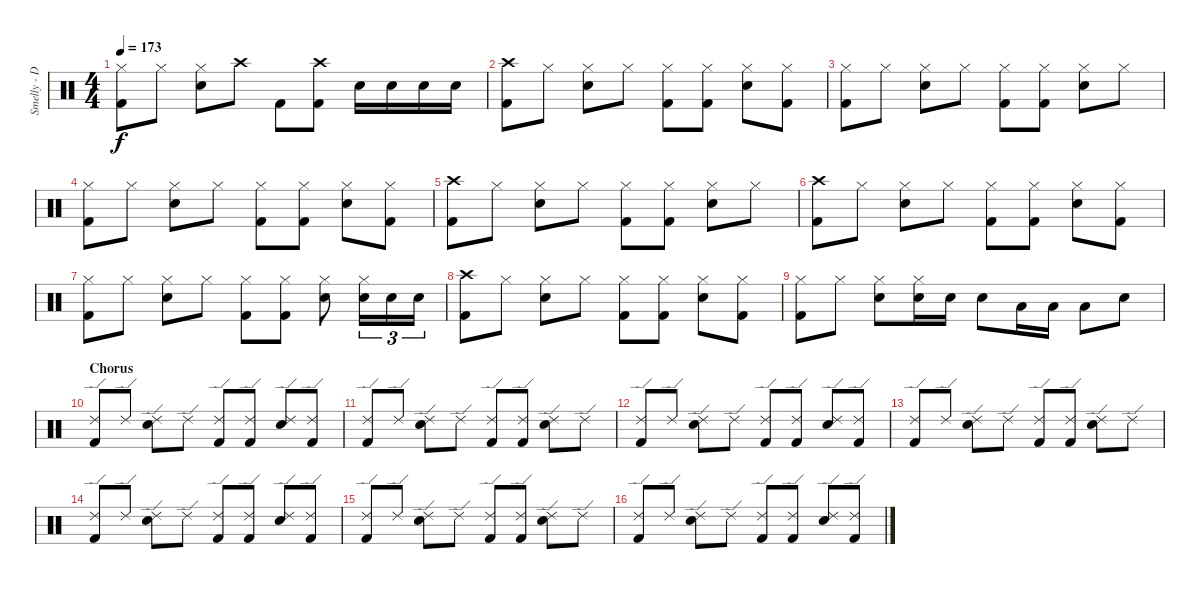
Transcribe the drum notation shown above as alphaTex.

\track ("Smelly - Drums" "Smelly - D") {instrument percussion}
\staff {score}
\articulation defaults
\ts (4 4)
\tempo 173
\clef neutral
\ks c
("Hi-Hat (closed)" "Kick (hit) 2").8{dy f} "Hi-Hat (closed)".8 ("Hi-Hat (closed)" "Snare (hit) 2").8 "Crash high (hit)".8 "Kick (hit) 2".8 ("Crash high (hit)" "Kick (hit) 2").8 "Snare (hit) 2".16 "Snare (hit) 2".16 "Snare (hit) 2".16 "Snare (hit) 2".16 |
("Crash high (hit)" "Kick (hit) 2").8 "Hi-Hat (closed)".8 ("Hi-Hat (closed)" "Snare (hit) 2").8 "Hi-Hat (closed)".8 ("Hi-Hat (closed)" "Kick (hit) 2").8 ("Hi-Hat (closed)" "Kick (hit) 2").8 ("Hi-Hat (closed)" "Snare (hit) 2").8 ("Hi-Hat (closed)" "Kick (hit) 2").8 |
("Hi-Hat (closed)" "Kick (hit) 2").8 "Hi-Hat (closed)".8 ("Hi-Hat (closed)" "Snare (hit) 2").8 "Hi-Hat (closed)".8 ("Hi-Hat (closed)" "Kick (hit) 2").8 ("Hi-Hat (closed)" "Kick (hit) 2").8 ("Hi-Hat (closed)" "Snare (hit) 2").8 "Hi-Hat (closed)".8 |
("Hi-Hat (closed)" "Kick (hit) 2").8 "Hi-Hat (closed)".8 ("Hi-Hat (closed)" "Snare (hit) 2").8 "Hi-Hat (closed)".8 ("Hi-Hat (closed)" "Kick (hit) 2").8 ("Hi-Hat (closed)" "Kick (hit) 2").8 ("Hi-Hat (closed)" "Snare (hit) 2").8 ("Hi-Hat (closed)" "Kick (hit) 2").8 |
("Crash high (hit)" "Kick (hit) 2").8 "Hi-Hat (closed)".8 ("Hi-Hat (closed)" "Snare (hit) 2").8 "Hi-Hat (closed)".8 ("Hi-Hat (closed)" "Kick (hit) 2").8 ("Hi-Hat (closed)" "Kick (hit) 2").8 ("Hi-Hat (closed)" "Snare (hit) 2").8 "Hi-Hat (closed)".8 |
("Crash high (hit)" "Kick (hit) 2").8 "Hi-Hat (closed)".8 ("Hi-Hat (closed)" "Snare (hit) 2").8 "Hi-Hat (closed)".8 ("Hi-Hat (closed)" "Kick (hit) 2").8 ("Hi-Hat (closed)" "Kick (hit) 2").8 ("Hi-Hat (closed)" "Snare (hit) 2").8 ("Hi-Hat (closed)" "Kick (hit) 2").8 |
("Hi-Hat (closed)" "Kick (hit) 2").8 "Hi-Hat (closed)".8 ("Hi-Hat (closed)" "Snare (hit) 2").8 "Hi-Hat (closed)".8 ("Hi-Hat (closed)" "Kick (hit) 2").8 ("Hi-Hat (closed)" "Kick (hit) 2").8 ("Hi-Hat (closed)" "Snare (hit) 2").8 ("Hi-Hat (closed)" "Snare (hit) 2").16{tu (3 2)} "Snare (hit) 2".16{tu (3 2)} "Snare (hit) 2".16{tu (3 2)} |
("Crash high (hit)" "Kick (hit) 2").8 "Hi-Hat (closed)".8 ("Hi-Hat (closed)" "Snare (hit) 2").8 "Hi-Hat (closed)".8 ("Hi-Hat (closed)" "Kick (hit) 2").8 ("Hi-Hat (closed)" "Kick (hit) 2").8 ("Hi-Hat (closed)" "Snare (hit) 2").8 ("Hi-Hat (closed)" "Kick (hit) 2").8 |
("Hi-Hat (closed)" "Kick (hit) 2").8 "Hi-Hat (closed)".8 ("Hi-Hat (closed)" "Snare (hit) 2").8 ("Hi-Hat (closed)" "Snare (hit) 2").16 "Snare (hit) 2".16 "Snare (hit) 2".8 "Low Tom (hit)".16 "Low Tom (hit)".16 "Low Tom (hit)".8 "Snare (hit) 2".8 |
\section ("" "Chorus")
("Ride (edge) 2" "Kick (hit) 2").8 "Ride (edge) 2".8 ("Ride (edge) 2" "Snare (hit) 2").8 "Ride (edge) 2".8 ("Ride (edge) 2" "Kick (hit) 2").8 ("Ride (edge) 2" "Kick (hit) 2").8 ("Ride (edge) 2" "Snare (hit) 2").8 ("Ride (edge) 2" "Kick (hit) 2").8 |
("Ride (edge) 2" "Kick (hit) 2").8 "Ride (edge) 2".8 ("Ride (edge) 2" "Snare (hit) 2").8 "Ride (edge) 2".8 ("Ride (edge) 2" "Kick (hit) 2").8 ("Ride (edge) 2" "Kick (hit) 2").8 ("Ride (edge) 2" "Snare (hit) 2").8 "Ride (edge) 2".8 |
("Ride (edge) 2" "Kick (hit) 2").8 "Ride (edge) 2".8 ("Ride (edge) 2" "Snare (hit) 2").8 "Ride (edge) 2".8 ("Ride (edge) 2" "Kick (hit) 2").8 ("Ride (edge) 2" "Kick (hit) 2").8 ("Ride (edge) 2" "Snare (hit) 2").8 ("Ride (edge) 2" "Kick (hit) 2").8 |
("Ride (edge) 2" "Kick (hit) 2").8 "Ride (edge) 2".8 ("Ride (edge) 2" "Snare (hit) 2").8 "Ride (edge) 2".8 ("Ride (edge) 2" "Kick (hit) 2").8 ("Ride (edge) 2" "Kick (hit) 2").8 ("Ride (edge) 2" "Snare (hit) 2").8 "Ride (edge) 2".8 |
("Ride (edge) 2" "Kick (hit) 2").8 "Ride (edge) 2".8 ("Ride (edge) 2" "Snare (hit) 2").8 "Ride (edge) 2".8 ("Ride (edge) 2" "Kick (hit) 2").8 ("Ride (edge) 2" "Kick (hit) 2").8 ("Ride (edge) 2" "Snare (hit) 2").8 ("Ride (edge) 2" "Kick (hit) 2").8 |
("Ride (edge) 2" "Kick (hit) 2").8 "Ride (edge) 2".8 ("Ride (edge) 2" "Snare (hit) 2").8 "Ride (edge) 2".8 ("Ride (edge) 2" "Kick (hit) 2").8 ("Ride (edge) 2" "Kick (hit) 2").8 ("Ride (edge) 2" "Snare (hit) 2").8 "Ride (edge) 2".8 |
("Ride (edge) 2" "Kick (hit) 2").8 "Ride (edge) 2".8 ("Ride (edge) 2" "Snare (hit) 2").8 "Ride (edge) 2".8 ("Ride (edge) 2" "Kick (hit) 2").8 ("Ride (edge) 2" "Kick (hit) 2").8 ("Ride (edge) 2" "Snare (hit) 2").8 ("Ride (edge) 2" "Kick (hit) 2").8
